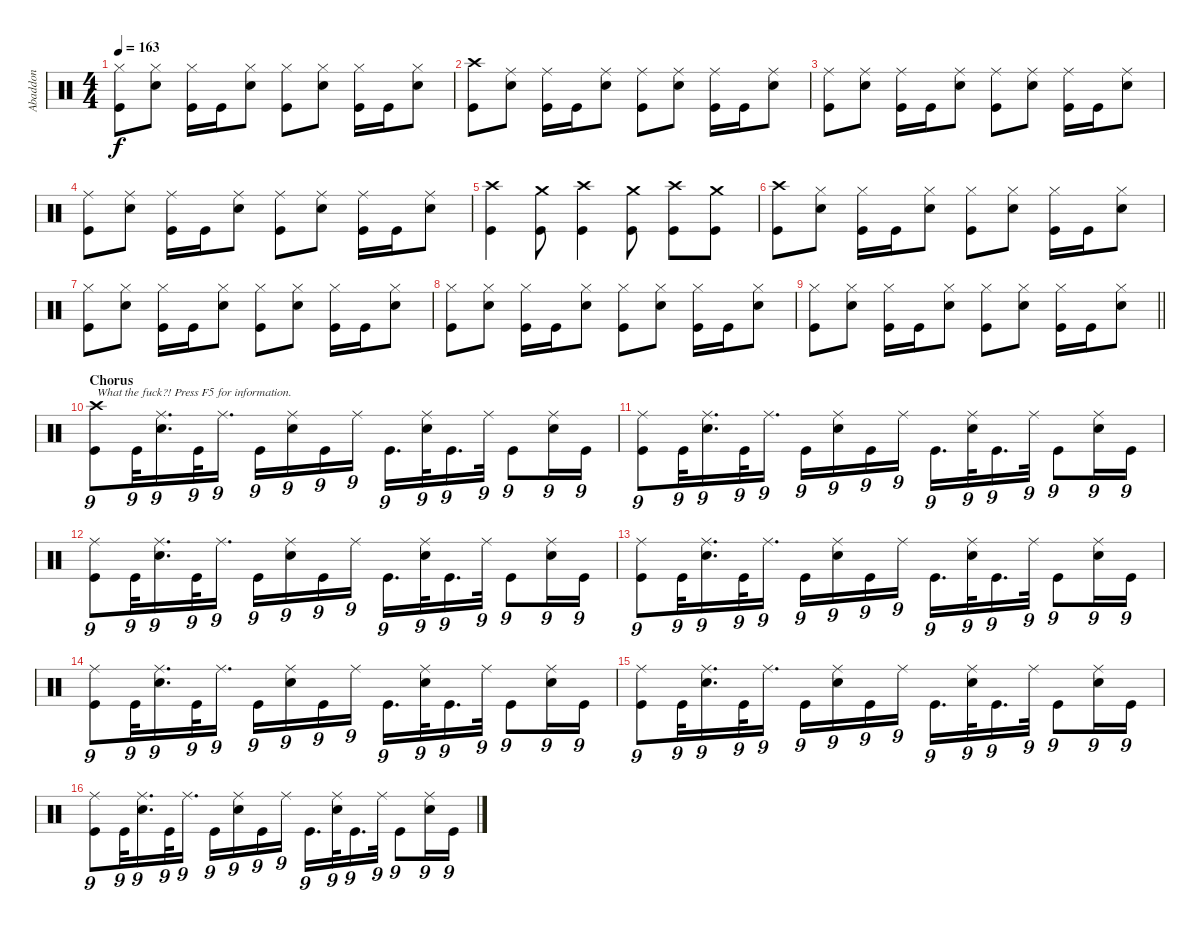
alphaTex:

\track ("Abaddon" "Abaddon") {instrument percussion}
\staff {score}
\articulation defaults
\ts (4 4)
\tempo 163
\clef neutral
\ks c
("Hi-Hat (closed)" "Kick (hit)").8{dy f} ("Hi-Hat (closed)" "Snare (hit) 2").8 ("Hi-Hat (closed)" "Kick (hit)").16 "Kick (hit)".16 ("Hi-Hat (closed)" "Snare (hit) 2").8 ("Hi-Hat (closed)" "Kick (hit)").8 ("Hi-Hat (closed)" "Snare (hit) 2").8 ("Hi-Hat (closed)" "Kick (hit)").16 "Kick (hit)".16 ("Hi-Hat (closed)" "Snare (hit) 2").8 |
("Crash high (hit)" "Kick (hit)").8 ("Ride (middle)" "Snare (hit) 2").8 ("Ride (middle)" "Kick (hit)").16 "Kick (hit)".16 ("Ride (middle)" "Snare (hit) 2").8 ("Ride (middle)" "Kick (hit)").8 ("Ride (middle)" "Snare (hit) 2").8 ("Ride (middle)" "Kick (hit)").16 "Kick (hit)".16 ("Ride (middle)" "Snare (hit) 2").8 |
("Ride (middle)" "Kick (hit)").8 ("Ride (middle)" "Snare (hit) 2").8 ("Ride (middle)" "Kick (hit)").16 "Kick (hit)".16 ("Ride (middle)" "Snare (hit) 2").8 ("Ride (middle)" "Kick (hit)").8 ("Ride (middle)" "Snare (hit) 2").8 ("Ride (middle)" "Kick (hit)").16 "Kick (hit)".16 ("Ride (middle)" "Snare (hit) 2").8 |
("Ride (middle)" "Kick (hit)").8 ("Ride (middle)" "Snare (hit) 2").8 ("Ride (middle)" "Kick (hit)").16 "Kick (hit)".16 ("Ride (middle)" "Snare (hit) 2").8 ("Ride (middle)" "Kick (hit)").8 ("Ride (middle)" "Snare (hit) 2").8 ("Ride (middle)" "Kick (hit)").16 "Kick (hit)".16 ("Ride (middle)" "Snare (hit) 2").8 |
("Crash high (hit)" "Kick (hit)").4 ("Crash medium (hit)" "Kick (hit)").8 ("Crash high (hit)" "Kick (hit)").4 ("Crash medium (hit)" "Kick (hit)").8 ("Crash high (hit)" "Kick (hit)").8 ("Crash medium (hit)" "Kick (hit)").8 |
("Crash high (hit)" "Kick (hit)").8 ("Hi-Hat (closed)" "Snare (hit) 2").8 ("Hi-Hat (closed)" "Kick (hit)").16 "Kick (hit)".16 ("Hi-Hat (closed)" "Snare (hit) 2").8 ("Hi-Hat (closed)" "Kick (hit)").8 ("Hi-Hat (closed)" "Snare (hit) 2").8 ("Hi-Hat (closed)" "Kick (hit)").16 "Kick (hit)".16 ("Hi-Hat (closed)" "Snare (hit) 2").8 |
("Hi-Hat (closed)" "Kick (hit)").8 ("Hi-Hat (closed)" "Snare (hit) 2").8 ("Hi-Hat (closed)" "Kick (hit)").16 "Kick (hit)".16 ("Hi-Hat (closed)" "Snare (hit) 2").8 ("Hi-Hat (closed)" "Kick (hit)").8 ("Hi-Hat (closed)" "Snare (hit) 2").8 ("Hi-Hat (closed)" "Kick (hit)").16 "Kick (hit)".16 ("Hi-Hat (closed)" "Snare (hit) 2").8 |
("Hi-Hat (closed)" "Kick (hit)").8 ("Hi-Hat (closed)" "Snare (hit) 2").8 ("Hi-Hat (closed)" "Kick (hit)").16 "Kick (hit)".16 ("Hi-Hat (closed)" "Snare (hit) 2").8 ("Hi-Hat (closed)" "Kick (hit)").8 ("Hi-Hat (closed)" "Snare (hit) 2").8 ("Hi-Hat (closed)" "Kick (hit)").16 "Kick (hit)".16 ("Hi-Hat (closed)" "Snare (hit) 2").8 |
\barLineRight lightlight
("Hi-Hat (closed)" "Kick (hit)").8 ("Hi-Hat (closed)" "Snare (hit) 2").8 ("Hi-Hat (closed)" "Kick (hit)").16 "Kick (hit)".16 ("Hi-Hat (closed)" "Snare (hit) 2").8 ("Hi-Hat (closed)" "Kick (hit)").8 ("Hi-Hat (closed)" "Snare (hit) 2").8 ("Hi-Hat (closed)" "Kick (hit)").16 "Kick (hit)".16 ("Hi-Hat (closed)" "Snare (hit) 2").8 |
\section ("" "Chorus")
("Crash high (hit)" "Kick (hit)").8{tu (9 8) txt "What the fuck?! Press F5 for information."} "Kick (hit)".32{tu (9 8)} ("Ride (middle)" "Snare (hit) 2").16{d tu (9 8)} "Kick (hit)".32{tu (9 8)} "Ride (middle)".16{d tu (9 8)} "Kick (hit)".16{tu (9 8)} ("Ride (middle)" "Snare (hit) 2").16{tu (9 8)} "Kick (hit)".16{tu (9 8)} "Ride (middle)".16{tu (9 8)} "Kick (hit)".16{d tu (9 8)} ("Ride (middle)" "Snare (hit) 2").32{tu (9 8)} "Kick (hit)".16{d tu (9 8)} "Ride (middle)".32{tu (9 8)} "Kick (hit)".8{tu (9 8)} ("Ride (middle)" "Snare (hit) 2").16{tu (9 8)} "Kick (hit)".16{tu (9 8)} |
("Ride (middle)" "Kick (hit)").8{tu (9 8)} "Kick (hit)".32{tu (9 8)} ("Ride (middle)" "Snare (hit) 2").16{d tu (9 8)} "Kick (hit)".32{tu (9 8)} "Ride (middle)".16{d tu (9 8)} "Kick (hit)".16{tu (9 8)} ("Ride (middle)" "Snare (hit) 2").16{tu (9 8)} "Kick (hit)".16{tu (9 8)} "Ride (middle)".16{tu (9 8)} "Kick (hit)".16{d tu (9 8)} ("Ride (middle)" "Snare (hit) 2").32{tu (9 8)} "Kick (hit)".16{d tu (9 8)} "Ride (middle)".32{tu (9 8)} "Kick (hit)".8{tu (9 8)} ("Ride (middle)" "Snare (hit) 2").16{tu (9 8)} "Kick (hit)".16{tu (9 8)} |
("Ride (middle)" "Kick (hit)").8{tu (9 8)} "Kick (hit)".32{tu (9 8)} ("Ride (middle)" "Snare (hit) 2").16{d tu (9 8)} "Kick (hit)".32{tu (9 8)} "Ride (middle)".16{d tu (9 8)} "Kick (hit)".16{tu (9 8)} ("Ride (middle)" "Snare (hit) 2").16{tu (9 8)} "Kick (hit)".16{tu (9 8)} "Ride (middle)".16{tu (9 8)} "Kick (hit)".16{d tu (9 8)} ("Ride (middle)" "Snare (hit) 2").32{tu (9 8)} "Kick (hit)".16{d tu (9 8)} "Ride (middle)".32{tu (9 8)} "Kick (hit)".8{tu (9 8)} ("Ride (middle)" "Snare (hit) 2").16{tu (9 8)} "Kick (hit)".16{tu (9 8)} |
("Ride (middle)" "Kick (hit)").8{tu (9 8)} "Kick (hit)".32{tu (9 8)} ("Ride (middle)" "Snare (hit) 2").16{d tu (9 8)} "Kick (hit)".32{tu (9 8)} "Ride (middle)".16{d tu (9 8)} "Kick (hit)".16{tu (9 8)} ("Ride (middle)" "Snare (hit) 2").16{tu (9 8)} "Kick (hit)".16{tu (9 8)} "Ride (middle)".16{tu (9 8)} "Kick (hit)".16{d tu (9 8)} ("Ride (middle)" "Snare (hit) 2").32{tu (9 8)} "Kick (hit)".16{d tu (9 8)} "Ride (middle)".32{tu (9 8)} "Kick (hit)".8{tu (9 8)} ("Ride (middle)" "Snare (hit) 2").16{tu (9 8)} "Kick (hit)".16{tu (9 8)} |
("Ride (middle)" "Kick (hit)").8{tu (9 8)} "Kick (hit)".32{tu (9 8)} ("Ride (middle)" "Snare (hit) 2").16{d tu (9 8)} "Kick (hit)".32{tu (9 8)} "Ride (middle)".16{d tu (9 8)} "Kick (hit)".16{tu (9 8)} ("Ride (middle)" "Snare (hit) 2").16{tu (9 8)} "Kick (hit)".16{tu (9 8)} "Ride (middle)".16{tu (9 8)} "Kick (hit)".16{d tu (9 8)} ("Ride (middle)" "Snare (hit) 2").32{tu (9 8)} "Kick (hit)".16{d tu (9 8)} "Ride (middle)".32{tu (9 8)} "Kick (hit)".8{tu (9 8)} ("Ride (middle)" "Snare (hit) 2").16{tu (9 8)} "Kick (hit)".16{tu (9 8)} |
("Ride (middle)" "Kick (hit)").8{tu (9 8)} "Kick (hit)".32{tu (9 8)} ("Ride (middle)" "Snare (hit) 2").16{d tu (9 8)} "Kick (hit)".32{tu (9 8)} "Ride (middle)".16{d tu (9 8)} "Kick (hit)".16{tu (9 8)} ("Ride (middle)" "Snare (hit) 2").16{tu (9 8)} "Kick (hit)".16{tu (9 8)} "Ride (middle)".16{tu (9 8)} "Kick (hit)".16{d tu (9 8)} ("Ride (middle)" "Snare (hit) 2").32{tu (9 8)} "Kick (hit)".16{d tu (9 8)} "Ride (middle)".32{tu (9 8)} "Kick (hit)".8{tu (9 8)} ("Ride (middle)" "Snare (hit) 2").16{tu (9 8)} "Kick (hit)".16{tu (9 8)} |
("Ride (middle)" "Kick (hit)").8{tu (9 8)} "Kick (hit)".32{tu (9 8)} ("Ride (middle)" "Snare (hit) 2").16{d tu (9 8)} "Kick (hit)".32{tu (9 8)} "Ride (middle)".16{d tu (9 8)} "Kick (hit)".16{tu (9 8)} ("Ride (middle)" "Snare (hit) 2").16{tu (9 8)} "Kick (hit)".16{tu (9 8)} "Ride (middle)".16{tu (9 8)} "Kick (hit)".16{d tu (9 8)} ("Ride (middle)" "Snare (hit) 2").32{tu (9 8)} "Kick (hit)".16{d tu (9 8)} "Ride (middle)".32{tu (9 8)} "Kick (hit)".8{tu (9 8)} ("Ride (middle)" "Snare (hit) 2").16{tu (9 8)} "Kick (hit)".16{tu (9 8)}
